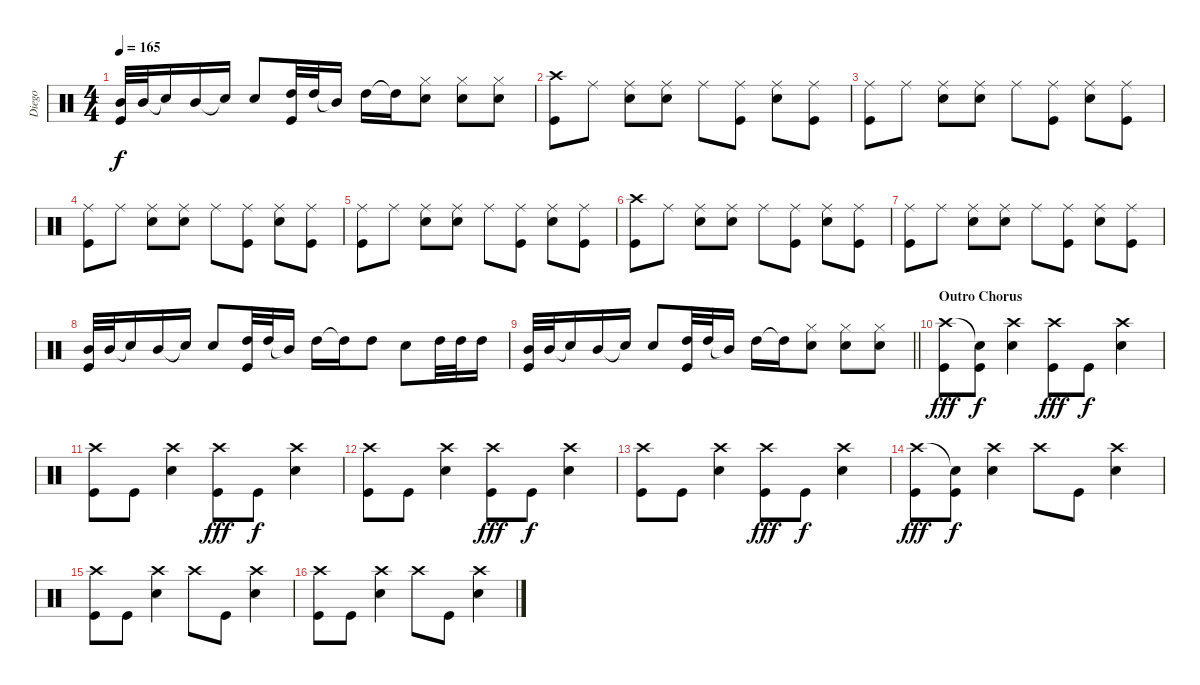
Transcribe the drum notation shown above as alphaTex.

\track ("Diego" "Diego") {instrument percussion}
\staff {score}
\articulation defaults
\ts (4 4)
\tempo 165
\clef neutral
\ks c
("Mid Tom (hit)" "Kick (hit)").32{dy f} "Mid Tom (hit)".32 "Snare (hit)"{t}.16 "Mid Tom (hit)".16 "Snare (hit) 2"{t}.16 "Snare (hit) 2".8 ("High Tom (hit)" "Kick (hit)").32 "High Tom (hit)".32 "Mid Tom (hit)"{t}.16 "High Tom (hit)".16 "High Tom (hit)"{t}.16 ("Hi-Hat (closed)" "Snare (hit) 2").8 ("Hi-Hat (closed)" "Snare (hit) 2").8 ("Hi-Hat (closed)" "Snare (hit) 2").8 |
("Crash high (hit)" "Kick (hit)").8 "Ride (middle)".8 ("Ride (middle)" "Snare (hit) 2").8 ("Ride (middle)" "Snare (hit) 2").8 "Ride (middle)".8 ("Ride (middle)" "Kick (hit)").8 ("Ride (middle)" "Snare (hit) 2").8 ("Ride (middle)" "Kick (hit)").8 |
("Ride (middle)" "Kick (hit)").8 "Ride (middle)".8 ("Ride (middle)" "Snare (hit) 2").8 ("Ride (middle)" "Snare (hit) 2").8 "Ride (middle)".8 ("Ride (middle)" "Kick (hit)").8 ("Ride (middle)" "Snare (hit) 2").8 ("Ride (middle)" "Kick (hit)").8 |
("Ride (middle)" "Kick (hit)").8 "Ride (middle)".8 ("Ride (middle)" "Snare (hit) 2").8 ("Ride (middle)" "Snare (hit) 2").8 "Ride (middle)".8 ("Ride (middle)" "Kick (hit)").8 ("Ride (middle)" "Snare (hit) 2").8 ("Ride (middle)" "Kick (hit)").8 |
("Ride (middle)" "Kick (hit)").8 "Ride (middle)".8 ("Ride (middle)" "Snare (hit) 2").8 ("Ride (middle)" "Snare (hit) 2").8 "Ride (middle)".8 ("Ride (middle)" "Kick (hit)").8 ("Ride (middle)" "Snare (hit) 2").8 ("Ride (middle)" "Kick (hit)").8 |
("Crash high (hit)" "Kick (hit)").8 "Ride (middle)".8 ("Ride (middle)" "Snare (hit) 2").8 ("Ride (middle)" "Snare (hit) 2").8 "Ride (middle)".8 ("Ride (middle)" "Kick (hit)").8 ("Ride (middle)" "Snare (hit) 2").8 ("Ride (middle)" "Kick (hit)").8 |
("Ride (middle)" "Kick (hit)").8 "Ride (middle)".8 ("Ride (middle)" "Snare (hit) 2").8 ("Ride (middle)" "Snare (hit) 2").8 "Ride (middle)".8 ("Ride (middle)" "Kick (hit)").8 ("Ride (middle)" "Snare (hit) 2").8 ("Ride (middle)" "Kick (hit)").8 |
("Mid Tom (hit)" "Kick (hit)").32 "Mid Tom (hit)".32 "Snare (hit)"{t}.16 "Mid Tom (hit)".16 "Snare (hit) 2"{t}.16 "Snare (hit) 2".8 ("High Tom (hit)" "Kick (hit)").32 "High Tom (hit)".32 "Mid Tom (hit)"{t}.16 "High Tom (hit)".16 "High Tom (hit)"{t}.16 "High Tom (hit)".8 "Snare (hit) 2".8 "High Tom (hit)".32 "High Tom (hit)".32 "High Tom (hit)".16 |
\barLineRight lightlight
("Mid Tom (hit)" "Kick (hit)").32 "Mid Tom (hit)".32 "Snare (hit)"{t}.16 "Mid Tom (hit)".16 "Snare (hit) 2"{t}.16 "Snare (hit) 2".8 ("High Tom (hit)" "Kick (hit)").32 "High Tom (hit)".32 "Mid Tom (hit)"{t}.16 "High Tom (hit)".16 "High Tom (hit)"{t}.16 ("Hi-Hat (closed)" "Snare (hit) 2").8 ("Hi-Hat (closed)" "Snare (hit) 2").8 ("Hi-Hat (closed)" "Snare (hit) 2").8 |
\section ("" "Outro Chorus")
("Crash high (hit)" "Kick (hit)").8{dy fff} ("Snare (hit)"{t} "Kick (hit)").8{dy f} ("Crash high (hit)" "Snare (hit) 2").4 ("Crash high (hit)" "Kick (hit)").8{dy fff} "Kick (hit)".8{dy f} ("Crash high (hit)" "Snare (hit) 2").4 |
("Crash high (hit)" "Kick (hit)").8 "Kick (hit)".8 ("Crash high (hit)" "Snare (hit) 2").4 ("Crash high (hit)" "Kick (hit)").8{dy fff} "Kick (hit)".8{dy f} ("Crash high (hit)" "Snare (hit) 2").4 |
("Crash high (hit)" "Kick (hit)").8 "Kick (hit)".8 ("Crash high (hit)" "Snare (hit) 2").4 ("Crash high (hit)" "Kick (hit)").8{dy fff} "Kick (hit)".8{dy f} ("Crash high (hit)" "Snare (hit) 2").4 |
("Crash high (hit)" "Kick (hit)").8 "Kick (hit)".8 ("Crash high (hit)" "Snare (hit) 2").4 ("Crash high (hit)" "Kick (hit)").8{dy fff} "Kick (hit)".8{dy f} ("Crash high (hit)" "Snare (hit) 2").4 |
("Crash high (hit)" "Kick (hit)").8{dy fff} ("Snare (hit)"{t} "Kick (hit)").8{dy f} ("Crash high (hit)" "Snare (hit) 2").4 "Crash high (hit)".8 "Kick (hit)".8 ("Crash high (hit)" "Snare (hit) 2").4 |
("Crash high (hit)" "Kick (hit)").8 "Kick (hit)".8 ("Crash high (hit)" "Snare (hit) 2").4 "Crash high (hit)".8 "Kick (hit)".8 ("Crash high (hit)" "Snare (hit) 2").4 |
("Crash high (hit)" "Kick (hit)").8 "Kick (hit)".8 ("Crash high (hit)" "Snare (hit) 2").4 "Crash high (hit)".8 "Kick (hit)".8 ("Crash high (hit)" "Snare (hit) 2").4
